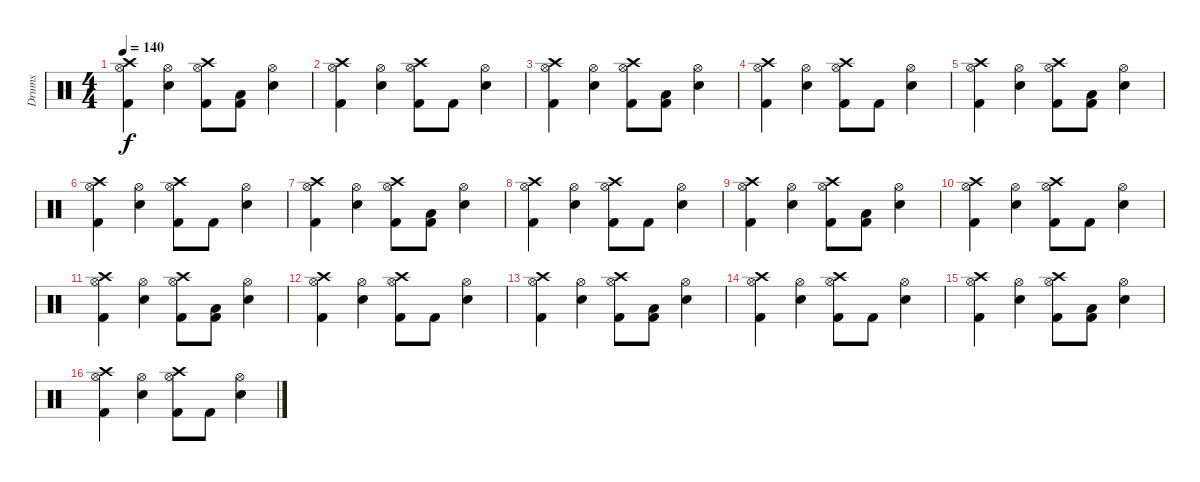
\track ("Drums" "Drums") {instrument percussion}
\staff {score}
\articulation defaults
\ts (4 4)
\tempo 140
\clef neutral
\ks c
("Hi-Hat (open)" "Crash high (hit)" "Kick (hit) 2").4{dy f} ("Hi-Hat (open)" "Electric Snare (hit)").4 ("Hi-Hat (open)" "Crash high (hit)" "Kick (hit) 2").8 ("Low Tom (hit)" "Kick (hit) 2").8 ("Hi-Hat (open)" "Electric Snare (hit)").4 |
("Hi-Hat (open)" "Crash high (hit)" "Kick (hit) 2").4 ("Hi-Hat (open)" "Electric Snare (hit)").4 ("Hi-Hat (open)" "Crash high (hit)" "Kick (hit) 2").8 "Kick (hit) 2".8 ("Hi-Hat (open)" "Electric Snare (hit)").4 |
("Hi-Hat (open)" "Crash high (hit)" "Kick (hit) 2").4 ("Hi-Hat (open)" "Electric Snare (hit)").4 ("Hi-Hat (open)" "Crash high (hit)" "Kick (hit) 2").8 ("Low Tom (hit)" "Kick (hit) 2").8 ("Hi-Hat (open)" "Electric Snare (hit)").4 |
("Hi-Hat (open)" "Crash high (hit)" "Kick (hit) 2").4 ("Hi-Hat (open)" "Electric Snare (hit)").4 ("Hi-Hat (open)" "Crash high (hit)" "Kick (hit) 2").8 "Kick (hit) 2".8 ("Hi-Hat (open)" "Electric Snare (hit)").4 |
("Hi-Hat (open)" "Crash high (hit)" "Kick (hit) 2").4 ("Hi-Hat (open)" "Electric Snare (hit)").4 ("Hi-Hat (open)" "Crash high (hit)" "Kick (hit) 2").8 ("Low Tom (hit)" "Kick (hit) 2").8 ("Hi-Hat (open)" "Electric Snare (hit)").4 |
("Hi-Hat (open)" "Crash high (hit)" "Kick (hit) 2").4 ("Hi-Hat (open)" "Electric Snare (hit)").4 ("Hi-Hat (open)" "Crash high (hit)" "Kick (hit) 2").8 "Kick (hit) 2".8 ("Hi-Hat (open)" "Electric Snare (hit)").4 |
("Hi-Hat (open)" "Crash high (hit)" "Kick (hit) 2").4 ("Hi-Hat (open)" "Electric Snare (hit)").4 ("Hi-Hat (open)" "Crash high (hit)" "Kick (hit) 2").8 ("Low Tom (hit)" "Kick (hit) 2").8 ("Hi-Hat (open)" "Electric Snare (hit)").4 |
("Hi-Hat (open)" "Crash high (hit)" "Kick (hit) 2").4 ("Hi-Hat (open)" "Electric Snare (hit)").4 ("Hi-Hat (open)" "Crash high (hit)" "Kick (hit) 2").8 "Kick (hit) 2".8 ("Hi-Hat (open)" "Electric Snare (hit)").4 |
("Hi-Hat (open)" "Crash high (hit)" "Kick (hit) 2").4 ("Hi-Hat (open)" "Electric Snare (hit)").4 ("Hi-Hat (open)" "Crash high (hit)" "Kick (hit) 2").8 ("Low Tom (hit)" "Kick (hit) 2").8 ("Hi-Hat (open)" "Electric Snare (hit)").4 |
("Hi-Hat (open)" "Crash high (hit)" "Kick (hit) 2").4 ("Hi-Hat (open)" "Electric Snare (hit)").4 ("Hi-Hat (open)" "Crash high (hit)" "Kick (hit) 2").8 "Kick (hit) 2".8 ("Hi-Hat (open)" "Electric Snare (hit)").4 |
("Hi-Hat (open)" "Crash high (hit)" "Kick (hit) 2").4 ("Hi-Hat (open)" "Electric Snare (hit)").4 ("Hi-Hat (open)" "Crash high (hit)" "Kick (hit) 2").8 ("Low Tom (hit)" "Kick (hit) 2").8 ("Hi-Hat (open)" "Electric Snare (hit)").4 |
("Hi-Hat (open)" "Crash high (hit)" "Kick (hit) 2").4 ("Hi-Hat (open)" "Electric Snare (hit)").4 ("Hi-Hat (open)" "Crash high (hit)" "Kick (hit) 2").8 "Kick (hit) 2".8 ("Hi-Hat (open)" "Electric Snare (hit)").4 |
("Hi-Hat (open)" "Crash high (hit)" "Kick (hit) 2").4 ("Hi-Hat (open)" "Electric Snare (hit)").4 ("Hi-Hat (open)" "Crash high (hit)" "Kick (hit) 2").8 ("Low Tom (hit)" "Kick (hit) 2").8 ("Hi-Hat (open)" "Electric Snare (hit)").4 |
("Hi-Hat (open)" "Crash high (hit)" "Kick (hit) 2").4 ("Hi-Hat (open)" "Electric Snare (hit)").4 ("Hi-Hat (open)" "Crash high (hit)" "Kick (hit) 2").8 "Kick (hit) 2".8 ("Hi-Hat (open)" "Electric Snare (hit)").4 |
("Hi-Hat (open)" "Crash high (hit)" "Kick (hit) 2").4 ("Hi-Hat (open)" "Electric Snare (hit)").4 ("Hi-Hat (open)" "Crash high (hit)" "Kick (hit) 2").8 ("Low Tom (hit)" "Kick (hit) 2").8 ("Hi-Hat (open)" "Electric Snare (hit)").4 |
("Hi-Hat (open)" "Crash high (hit)" "Kick (hit) 2").4 ("Hi-Hat (open)" "Electric Snare (hit)").4 ("Hi-Hat (open)" "Crash high (hit)" "Kick (hit) 2").8 "Kick (hit) 2".8 ("Hi-Hat (open)" "Electric Snare (hit)").4
